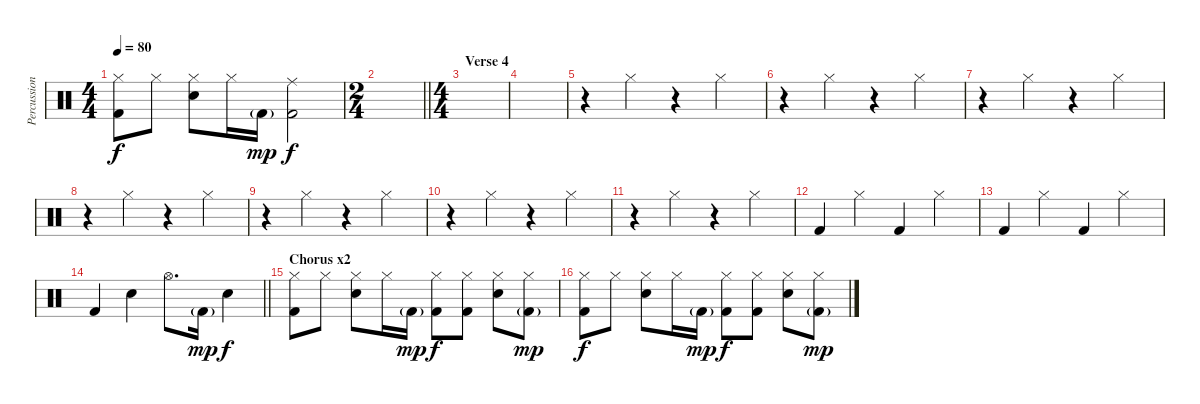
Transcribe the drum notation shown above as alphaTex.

\track ("Percussion" "Percussion") {instrument percussion}
\staff {score}
\articulation defaults
\ts (4 4)
\tempo 80
\clef neutral
\ks c
("Hi-Hat (closed)" "Kick (hit) 2").8{dy f} "Hi-Hat (closed)".8 ("Hi-Hat (closed)" "Snare (hit) 2").8 "Hi-Hat (closed)".16 "Kick (hit) 2"{g}.16{dy mp} ("Ride (middle)" "Kick (hit) 2").2{dy f} |
\ts (2 4)
\barLineRight lightlight
|
\ts (4 4)
\section ("" "Verse 4")
|
|
r.4 "Hi-Hat (closed)".4 r.4 "Hi-Hat (closed)".4 |
r.4 "Hi-Hat (closed)".4 r.4 "Hi-Hat (closed)".4 |
r.4 "Hi-Hat (closed)".4 r.4 "Hi-Hat (closed)".4 |
r.4 "Hi-Hat (closed)".4 r.4 "Hi-Hat (closed)".4 |
r.4 "Hi-Hat (closed)".4 r.4 "Hi-Hat (closed)".4 |
r.4 "Hi-Hat (closed)".4 r.4 "Hi-Hat (closed)".4 |
r.4 "Hi-Hat (closed)".4 r.4 "Hi-Hat (closed)".4 |
"Kick (hit) 2".4 "Hi-Hat (closed)".4 "Kick (hit) 2".4 "Hi-Hat (closed)".4 |
"Kick (hit) 2".4 "Hi-Hat (closed)".4 "Kick (hit) 2".4 "Hi-Hat (closed)".4 |
\barLineRight lightlight "Kick (hit) 2".4 "Snare (hit) 2".4 "Hi-Hat (open)".8{d} "Kick (hit) 2"{g}.16{dy mp} "Snare (hit) 2".4{dy f}
|
\section ("" "Chorus x2")
("Hi-Hat (closed)" "Kick (hit) 2").8 "Hi-Hat (closed)".8 ("Hi-Hat (closed)" "Snare (hit) 2").8 "Hi-Hat (closed)".16 "Kick (hit) 2"{g}.16{dy mp} ("Hi-Hat (closed)" "Kick (hit) 2").8{dy f} ("Hi-Hat (closed)" "Kick (hit) 2").8 ("Hi-Hat (closed)" "Snare (hit) 2").8 ("Hi-Hat (closed)" "Kick (hit) 2"{g}).8{dy mp} |
("Hi-Hat (closed)" "Kick (hit) 2").8{dy f} "Hi-Hat (closed)".8 ("Hi-Hat (closed)" "Snare (hit) 2").8 "Hi-Hat (closed)".16 "Kick (hit) 2"{g}.16{dy mp} ("Hi-Hat (closed)" "Kick (hit) 2").8{dy f} ("Hi-Hat (closed)" "Kick (hit) 2").8 ("Hi-Hat (closed)" "Snare (hit) 2").8 ("Hi-Hat (closed)" "Kick (hit) 2"{g}).8{dy mp}
